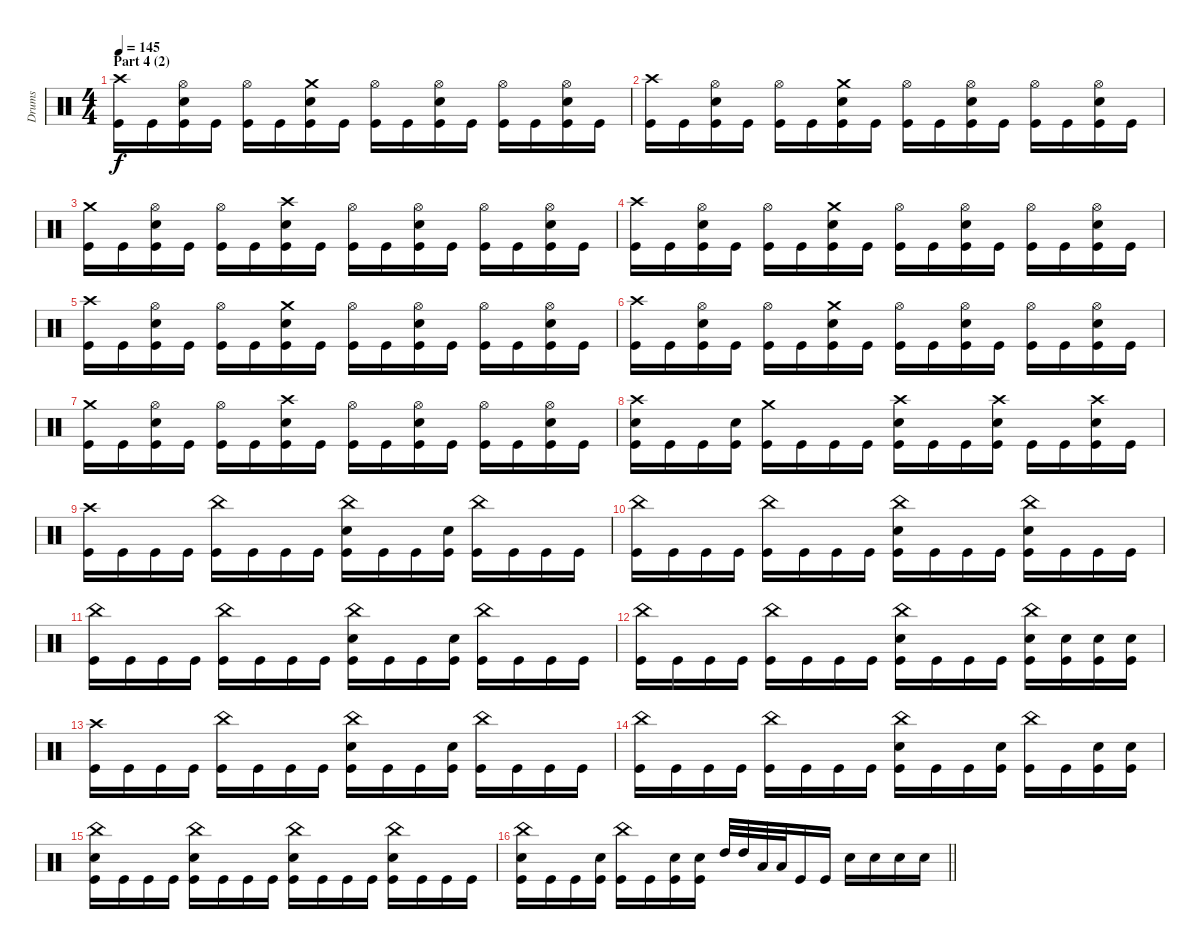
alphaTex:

\track ("Drums" "Drums") {instrument percussion}
\staff {score}
\articulation defaults
\ts (4 4)
\section ("" "Part 4 (2)")
\tempo 145
\clef neutral
\ks c
("Crash high (hit)" "Kick (hit)").16{dy f} "Kick (hit)".16 ("Hi-Hat (open)" "Snare (hit) 2" "Kick (hit)").16 "Kick (hit)".16 ("Hi-Hat (open)" "Kick (hit)").16 "Kick (hit)".16 ("Crash medium (hit)" "Snare (hit) 2" "Kick (hit)").16 "Kick (hit)".16 ("Hi-Hat (open)" "Kick (hit)").16 "Kick (hit)".16 ("Hi-Hat (open)" "Snare (hit) 2" "Kick (hit)").16 "Kick (hit)".16 ("Hi-Hat (open)" "Kick (hit)").16 "Kick (hit)".16 ("Hi-Hat (open)" "Snare (hit) 2" "Kick (hit)").16 "Kick (hit)".16 |
("Crash high (hit)" "Kick (hit)").16 "Kick (hit)".16 ("Hi-Hat (open)" "Snare (hit) 2" "Kick (hit)").16 "Kick (hit)".16 ("Hi-Hat (open)" "Kick (hit)").16 "Kick (hit)".16 ("Crash medium (hit)" "Snare (hit) 2" "Kick (hit)").16 "Kick (hit)".16 ("Hi-Hat (open)" "Kick (hit)").16 "Kick (hit)".16 ("Hi-Hat (open)" "Snare (hit) 2" "Kick (hit)").16 "Kick (hit)".16 ("Hi-Hat (open)" "Kick (hit)").16 "Kick (hit)".16 ("Hi-Hat (open)" "Snare (hit) 2" "Kick (hit)").16 "Kick (hit)".16 |
("Crash medium (hit)" "Kick (hit)").16 "Kick (hit)".16 ("Hi-Hat (open)" "Snare (hit) 2" "Kick (hit)").16 "Kick (hit)".16 ("Hi-Hat (open)" "Kick (hit)").16 "Kick (hit)".16 ("Crash high (hit)" "Snare (hit) 2" "Kick (hit)").16 "Kick (hit)".16 ("Hi-Hat (open)" "Kick (hit)").16 "Kick (hit)".16 ("Hi-Hat (open)" "Snare (hit) 2" "Kick (hit)").16 "Kick (hit)".16 ("Hi-Hat (open)" "Kick (hit)").16 "Kick (hit)".16 ("Hi-Hat (open)" "Snare (hit) 2" "Kick (hit)").16 "Kick (hit)".16 |
("Crash high (hit)" "Kick (hit)").16 "Kick (hit)".16 ("Hi-Hat (open)" "Snare (hit) 2" "Kick (hit)").16 "Kick (hit)".16 ("Hi-Hat (open)" "Kick (hit)").16 "Kick (hit)".16 ("Crash medium (hit)" "Snare (hit) 2" "Kick (hit)").16 "Kick (hit)".16 ("Hi-Hat (open)" "Kick (hit)").16 "Kick (hit)".16 ("Hi-Hat (open)" "Snare (hit) 2" "Kick (hit)").16 "Kick (hit)".16 ("Hi-Hat (open)" "Kick (hit)").16 "Kick (hit)".16 ("Hi-Hat (open)" "Snare (hit) 2" "Kick (hit)").16 "Kick (hit)".16 |
("Crash high (hit)" "Kick (hit)").16 "Kick (hit)".16 ("Hi-Hat (open)" "Snare (hit) 2" "Kick (hit)").16 "Kick (hit)".16 ("Hi-Hat (open)" "Kick (hit)").16 "Kick (hit)".16 ("Crash medium (hit)" "Snare (hit) 2" "Kick (hit)").16 "Kick (hit)".16 ("Hi-Hat (open)" "Kick (hit)").16 "Kick (hit)".16 ("Hi-Hat (open)" "Snare (hit) 2" "Kick (hit)").16 "Kick (hit)".16 ("Hi-Hat (open)" "Kick (hit)").16 "Kick (hit)".16 ("Hi-Hat (open)" "Snare (hit) 2" "Kick (hit)").16 "Kick (hit)".16 |
("Crash high (hit)" "Kick (hit)").16 "Kick (hit)".16 ("Hi-Hat (open)" "Snare (hit) 2" "Kick (hit)").16 "Kick (hit)".16 ("Hi-Hat (open)" "Kick (hit)").16 "Kick (hit)".16 ("Crash medium (hit)" "Snare (hit) 2" "Kick (hit)").16 "Kick (hit)".16 ("Hi-Hat (open)" "Kick (hit)").16 "Kick (hit)".16 ("Hi-Hat (open)" "Snare (hit) 2" "Kick (hit)").16 "Kick (hit)".16 ("Hi-Hat (open)" "Kick (hit)").16 "Kick (hit)".16 ("Hi-Hat (open)" "Snare (hit) 2" "Kick (hit)").16 "Kick (hit)".16 |
("Crash medium (hit)" "Kick (hit)").16 "Kick (hit)".16 ("Hi-Hat (open)" "Snare (hit) 2" "Kick (hit)").16 "Kick (hit)".16 ("Hi-Hat (open)" "Kick (hit)").16 "Kick (hit)".16 ("Crash high (hit)" "Snare (hit) 2" "Kick (hit)").16 "Kick (hit)".16 ("Hi-Hat (open)" "Kick (hit)").16 "Kick (hit)".16 ("Hi-Hat (open)" "Snare (hit) 2" "Kick (hit)").16 "Kick (hit)".16 ("Hi-Hat (open)" "Kick (hit)").16 "Kick (hit)".16 ("Hi-Hat (open)" "Snare (hit) 2" "Kick (hit)").16 "Kick (hit)".16 |
("Crash high (hit)" "Snare (hit) 2" "Kick (hit)").16 "Kick (hit)".16 "Kick (hit)".16 ("Snare (hit) 2" "Kick (hit)").16 ("Crash medium (hit)" "Kick (hit)").16 "Kick (hit)".16 "Kick (hit)".16 "Kick (hit)".16 ("Crash high (hit)" "Snare (hit) 2" "Kick (hit)").16 "Kick (hit)".16 "Kick (hit)".16 ("Crash high (hit)" "Snare (hit) 2" "Kick (hit)").16 "Kick (hit)".16 "Kick (hit)".16 ("Crash high (hit)" "Snare (hit) 2" "Kick (hit)").16 "Kick (hit)".16 |
("Crash high (hit)" "Kick (hit)").16 "Kick (hit)".16 "Kick (hit)".16 "Kick (hit)".16 ("China (hit)" "Kick (hit)").16 "Kick (hit)".16 "Kick (hit)".16 "Kick (hit)".16 ("China (hit)" "Snare (hit) 2" "Kick (hit)").16 "Kick (hit)".16 "Kick (hit)".16 ("Snare (hit) 2" "Kick (hit)").16 ("China (hit)" "Kick (hit)").16 "Kick (hit)".16 "Kick (hit)".16 "Kick (hit)".16 |
("China (hit)" "Kick (hit)").16 "Kick (hit)".16 "Kick (hit)".16 "Kick (hit)".16 ("China (hit)" "Kick (hit)").16 "Kick (hit)".16 "Kick (hit)".16 "Kick (hit)".16 ("China (hit)" "Snare (hit) 2" "Kick (hit)").16 "Kick (hit)".16 "Kick (hit)".16 "Kick (hit)".16 ("China (hit)" "Snare (hit) 2" "Kick (hit)").16 "Kick (hit)".16 "Kick (hit)".16 "Kick (hit)".16 |
("China (hit)" "Kick (hit)").16 "Kick (hit)".16 "Kick (hit)".16 "Kick (hit)".16 ("China (hit)" "Kick (hit)").16 "Kick (hit)".16 "Kick (hit)".16 "Kick (hit)".16 ("China (hit)" "Snare (hit) 2" "Kick (hit)").16 "Kick (hit)".16 "Kick (hit)".16 ("Snare (hit) 2" "Kick (hit)").16 ("China (hit)" "Kick (hit)").16 "Kick (hit)".16 "Kick (hit)".16 "Kick (hit)".16 |
("China (hit)" "Kick (hit)").16 "Kick (hit)".16 "Kick (hit)".16 "Kick (hit)".16 ("China (hit)" "Kick (hit)").16 "Kick (hit)".16 "Kick (hit)".16 "Kick (hit)".16 ("China (hit)" "Snare (hit) 2" "Kick (hit)").16 "Kick (hit)".16 "Kick (hit)".16 "Kick (hit)".16 ("China (hit)" "Snare (hit) 2" "Kick (hit)").16 ("Snare (hit) 2" "Kick (hit)").16 ("Snare (hit) 2" "Kick (hit)").16 ("Snare (hit) 2" "Kick (hit)").16 |
("Crash high (hit)" "Kick (hit)").16 "Kick (hit)".16 "Kick (hit)".16 "Kick (hit)".16 ("China (hit)" "Kick (hit)").16 "Kick (hit)".16 "Kick (hit)".16 "Kick (hit)".16 ("China (hit)" "Snare (hit) 2" "Kick (hit)").16 "Kick (hit)".16 "Kick (hit)".16 ("Snare (hit) 2" "Kick (hit)").16 ("China (hit)" "Kick (hit)").16 "Kick (hit)".16 "Kick (hit)".16 "Kick (hit)".16 |
("China (hit)" "Kick (hit)").16 "Kick (hit)".16 "Kick (hit)".16 "Kick (hit)".16 ("China (hit)" "Kick (hit)").16 "Kick (hit)".16 "Kick (hit)".16 "Kick (hit)".16 ("China (hit)" "Snare (hit) 2" "Kick (hit)").16 "Kick (hit)".16 "Kick (hit)".16 ("Snare (hit) 2" "Kick (hit)").16 ("China (hit)" "Kick (hit)").16 "Kick (hit)".16 ("Snare (hit) 2" "Kick (hit)").16 ("Snare (hit) 2" "Kick (hit)").16 |
("China (hit)" "Snare (hit) 2" "Kick (hit)").16 "Kick (hit)".16 "Kick (hit)".16 "Kick (hit)".16 ("China (hit)" "Snare (hit) 2" "Kick (hit)").16 "Kick (hit)".16 "Kick (hit)".16 "Kick (hit)".16 ("China (hit)" "Snare (hit) 2" "Kick (hit)").16 "Kick (hit)".16 "Kick (hit)".16 "Kick (hit)".16 ("China (hit)" "Snare (hit) 2" "Kick (hit)").16 "Kick (hit)".16 "Kick (hit)".16 "Kick (hit)".16 |
\barLineRight lightlight
("China (hit)" "Snare (hit) 2" "Kick (hit)").16 "Kick (hit)".16 "Kick (hit)".16 ("Snare (hit) 2" "Kick (hit)").16 ("China (hit)" "Kick (hit)").16 "Kick (hit)".16 ("Snare (hit) 2" "Kick (hit)").16 ("Snare (hit) 2" "Kick (hit)").16 "High Tom (hit)".32 "High Tom (hit)".32 "Low Tom (hit)".32 "Low Tom (hit)".32 "Kick (hit)".16 "Kick (hit)".16 "Snare (hit) 2".16 "Snare (hit) 2".16 "Snare (hit) 2".16 "Snare (hit) 2".16
